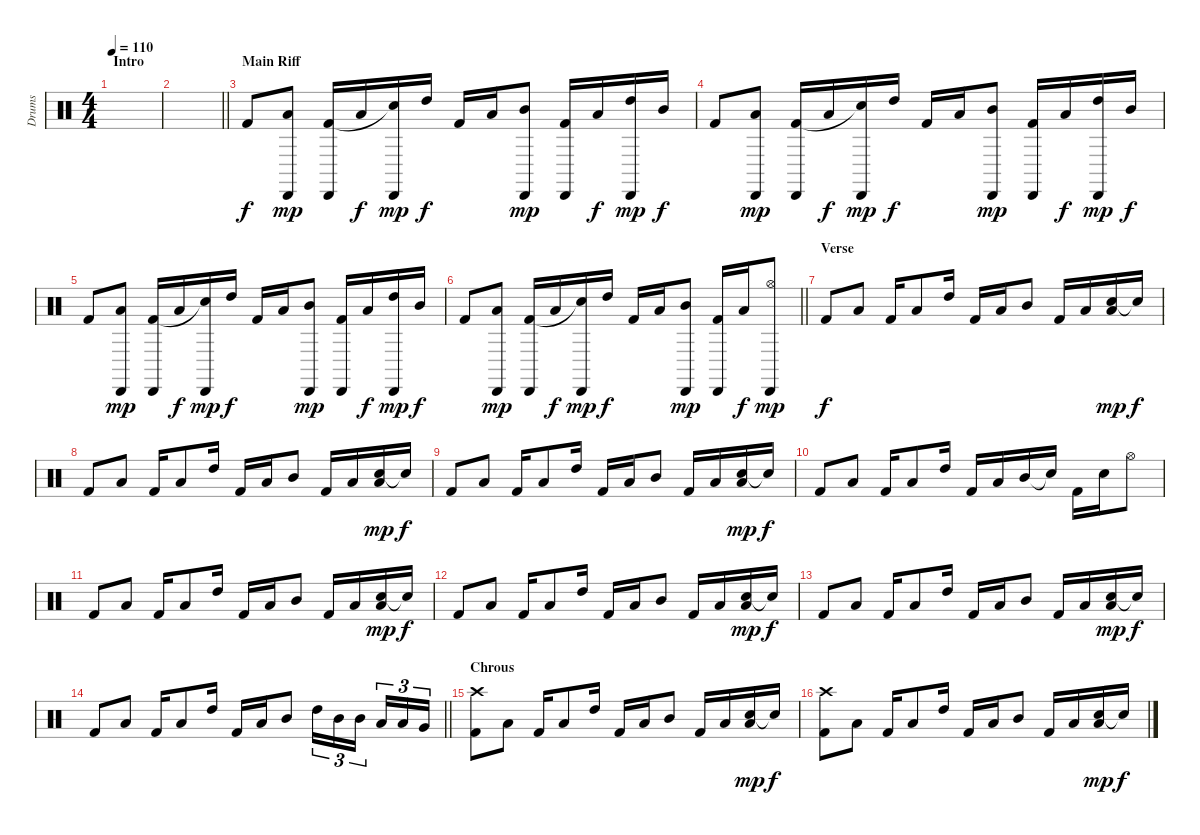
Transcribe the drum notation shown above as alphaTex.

\track ("Drums" "Drums") {instrument percussion}
\staff {score}
\articulation defaults
\ts (4 4)
\section ("" "Intro")
\tempo 110
\clef neutral
\ks c
|
\barLineRight lightlight
|
\section ("" "Main Riff")
"Kick (hit) 2".8 ("Cabasa (hit)" "Low Tom (hit)").8{dy mp} ("Cabasa (hit)" "Kick (hit) 2").16 "Low Tom (hit)".16{dy f} ("Cabasa (hit)" "Snare (hit)"{t}).16{dy mp} "High Tom (hit)".16{dy f} "Kick (hit) 2".16 "Low Tom (hit)".16 ("Cabasa (hit)" "Mid Tom (hit)").8{dy mp} ("Cabasa (hit)" "Kick (hit) 2").16 "Low Tom (hit)".16{dy f} ("Cabasa (hit)" "High Tom (hit)").16{dy mp} "Mid Tom (hit)".16{dy f} |
"Kick (hit) 2".8 ("Cabasa (hit)" "Low Tom (hit)").8{dy mp} ("Cabasa (hit)" "Kick (hit) 2").16 "Low Tom (hit)".16{dy f} ("Cabasa (hit)" "Snare (hit)"{t}).16{dy mp} "High Tom (hit)".16{dy f} "Kick (hit) 2".16 "Low Tom (hit)".16 ("Cabasa (hit)" "Mid Tom (hit)").8{dy mp} ("Cabasa (hit)" "Kick (hit) 2").16 "Low Tom (hit)".16{dy f} ("Cabasa (hit)" "High Tom (hit)").16{dy mp} "Mid Tom (hit)".16{dy f} |
"Kick (hit) 2".8 ("Cabasa (hit)" "Low Tom (hit)").8{dy mp} ("Cabasa (hit)" "Kick (hit) 2").16 "Low Tom (hit)".16{dy f} ("Cabasa (hit)" "Snare (hit)"{t}).16{dy mp} "High Tom (hit)".16{dy f} "Kick (hit) 2".16 "Low Tom (hit)".16 ("Cabasa (hit)" "Mid Tom (hit)").8{dy mp} ("Cabasa (hit)" "Kick (hit) 2").16 "Low Tom (hit)".16{dy f} ("Cabasa (hit)" "High Tom (hit)").16{dy mp} "Mid Tom (hit)".16{dy f} |
\barLineRight lightlight "Kick (hit) 2".8
("Cabasa (hit)" "Low Tom (hit)").8{dy mp} ("Cabasa (hit)" "Kick (hit) 2").16 "Low Tom (hit)".16{dy f} ("Cabasa (hit)" "Snare (hit)"{t}).16{dy mp} "High Tom (hit)".16{dy f} "Kick (hit) 2".16 "Low Tom (hit)".16 ("Cabasa (hit)" "Mid Tom (hit)").8{dy mp} ("Cabasa (hit)" "Kick (hit) 2").16 "Low Tom (hit)".16{dy f} ("Cabasa (hit)" "Hi-Hat (open)").8{dy mp} |
\section ("" "Verse")
"Kick (hit) 2".8{dy f} "Low Tom (hit)".8 "Kick (hit) 2".16 "Low Tom (hit)".8 "High Tom (hit)".16 "Kick (hit) 2".16 "Low Tom (hit)".16 "Mid Tom (hit)".8 "Kick (hit) 2".16 "Low Tom (hit)".16 ("Snare (hit) 2" "Low Tom (hit)").16{dy mp} "Snare (hit)"{t}.16{dy f} |
"Kick (hit) 2".8 "Low Tom (hit)".8 "Kick (hit) 2".16 "Low Tom (hit)".8 "High Tom (hit)".16 "Kick (hit) 2".16 "Low Tom (hit)".16 "Mid Tom (hit)".8 "Kick (hit) 2".16 "Low Tom (hit)".16 ("Snare (hit) 2" "Low Tom (hit)").16{dy mp} "Snare (hit)"{t}.16{dy f} |
"Kick (hit) 2".8 "Low Tom (hit)".8 "Kick (hit) 2".16 "Low Tom (hit)".8 "High Tom (hit)".16 "Kick (hit) 2".16 "Low Tom (hit)".16 "Mid Tom (hit)".8 "Kick (hit) 2".16 "Low Tom (hit)".16 ("Snare (hit) 2" "Low Tom (hit)").16{dy mp} "Snare (hit)"{t}.16{dy f} |
"Kick (hit) 2".8 "Low Tom (hit)".8 "Kick (hit) 2".16 "Low Tom (hit)".8 "High Tom (hit)".16 "Kick (hit) 2".16 "Low Tom (hit)".16 "Mid Tom (hit)".16 "Snare (hit)"{t}.16 "Kick (hit) 2".16 "Snare (hit) 2".16 "Hi-Hat (open)".8 |
"Kick (hit) 2".8 "Low Tom (hit)".8 "Kick (hit) 2".16 "Low Tom (hit)".8 "High Tom (hit)".16 "Kick (hit) 2".16 "Low Tom (hit)".16 "Mid Tom (hit)".8 "Kick (hit) 2".16 "Low Tom (hit)".16 ("Snare (hit) 2" "Low Tom (hit)").16{dy mp} "Snare (hit)"{t}.16{dy f} |
"Kick (hit) 2".8 "Low Tom (hit)".8 "Kick (hit) 2".16 "Low Tom (hit)".8 "High Tom (hit)".16 "Kick (hit) 2".16 "Low Tom (hit)".16 "Mid Tom (hit)".8 "Kick (hit) 2".16 "Low Tom (hit)".16 ("Snare (hit) 2" "Low Tom (hit)").16{dy mp} "Snare (hit)"{t}.16{dy f} |
"Kick (hit) 2".8 "Low Tom (hit)".8 "Kick (hit) 2".16 "Low Tom (hit)".8 "High Tom (hit)".16 "Kick (hit) 2".16 "Low Tom (hit)".16 "Mid Tom (hit)".8 "Kick (hit) 2".16 "Low Tom (hit)".16 ("Snare (hit) 2" "Low Tom (hit)").16{dy mp} "Snare (hit)"{t}.16{dy f} |
\barLineRight lightlight "Kick (hit) 2".8 "Low Tom (hit)".8 "Kick (hit) 2".16 "Low Tom (hit)".8 "High Tom (hit)".16 "Kick (hit) 2".16 "Low Tom (hit)".16 "Mid Tom (hit)".8 "High Tom (hit)".16{tu (3 2)} "Mid Tom (hit)".16{tu (3 2)} "Mid Tom (hit)".16{tu (3 2) beam splitsecondary} "Low Tom (hit)".16{tu (3 2)} "Low Tom (hit)".16{tu (3 2)} "Very Low Tom (hit)".16{tu (3 2)}
|
\section ("" "Chrous")
("Crash high (hit)" "Kick (hit) 2").8 "Low Tom (hit)".8 "Kick (hit) 2".16 "Low Tom (hit)".8 "High Tom (hit)".16 "Kick (hit) 2".16 "Low Tom (hit)".16 "Mid Tom (hit)".8 "Kick (hit) 2".16 "Low Tom (hit)".16 ("Snare (hit) 2" "Low Tom (hit)").16{dy mp} "Snare (hit)"{t}.16{dy f} |
("Crash high (hit)" "Kick (hit) 2").8 "Low Tom (hit)".8 "Kick (hit) 2".16 "Low Tom (hit)".8 "High Tom (hit)".16 "Kick (hit) 2".16 "Low Tom (hit)".16 "Mid Tom (hit)".8 "Kick (hit) 2".16 "Low Tom (hit)".16 ("Snare (hit) 2" "Low Tom (hit)").16{dy mp} "Snare (hit)"{t}.16{dy f}
